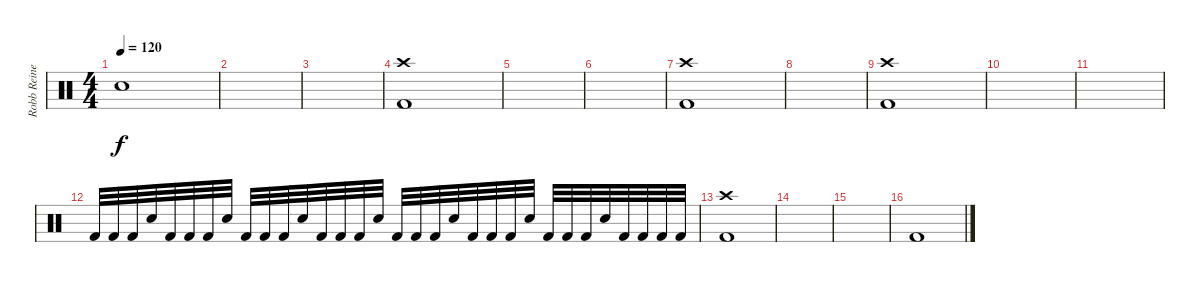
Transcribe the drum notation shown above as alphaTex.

\track ("Robb Reiner" "Robb Reine") {instrument percussion}
\staff {score}
\articulation defaults
\ts (4 4)
\tempo 120
\clef neutral
\ks c "Snare (hit)".1{dy f}
|
|
|
("Crash high (hit)" "Kick (hit) 2").1{volume 8} |
|
|
("Kick (hit) 2" "Crash high (hit)").1 |
|
("Kick (hit) 2" "Crash high (hit)").1 |
|
|
"Kick (hit) 2".32 "Kick (hit) 2".32 "Kick (hit) 2".32 "Snare (hit) 2".32 "Kick (hit) 2".32 "Kick (hit) 2".32 "Kick (hit) 2".32 "Snare (hit) 2".32 "Kick (hit) 2".32 "Kick (hit) 2".32 "Kick (hit) 2".32 "Snare (hit) 2".32 "Kick (hit) 2".32 "Kick (hit) 2".32 "Kick (hit) 2".32 "Snare (hit) 2".32 "Kick (hit) 2".32 "Kick (hit) 2".32 "Kick (hit) 2".32 "Snare (hit) 2".32 "Kick (hit) 2".32 "Kick (hit) 2".32 "Kick (hit) 2".32 "Snare (hit) 2".32 "Kick (hit) 2".32 "Kick (hit) 2".32 "Kick (hit) 2".32 "Snare (hit) 2".32 "Kick (hit) 2".32 "Kick (hit) 2".32 "Kick (hit) 2".32 "Kick (hit) 2".32 |
("Kick (hit) 2" "Crash high (hit)").1 |
|
|
"Kick (hit) 2".1
